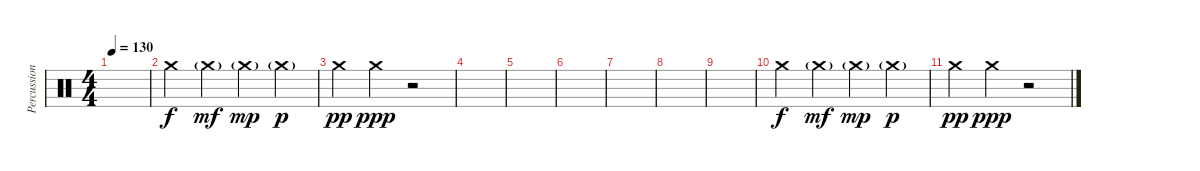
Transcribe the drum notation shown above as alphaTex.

\track ("Percussion" "Percussion") {instrument percussion}
\staff {score}
\articulation defaults
\ts (4 4)
\tempo 130
\clef neutral
\ks c
|
"Crash medium (hit)".4{dy f} "Crash medium (hit)"{g}.4{dy mf} "Crash medium (hit)"{g}.4{dy mp} "Crash medium (hit)"{g}.4{dy p} |
"Crash medium (hit)".4{dy pp} "Crash medium (hit)".4{dy ppp} r.2 |
|
|
|
|
|
|
"Crash medium (hit)".4{dy f} "Crash medium (hit)"{g}.4{dy mf} "Crash medium (hit)"{g}.4{dy mp} "Crash medium (hit)"{g}.4{dy p} |
"Crash medium (hit)".4{dy pp} "Crash medium (hit)".4{dy ppp} r.2
